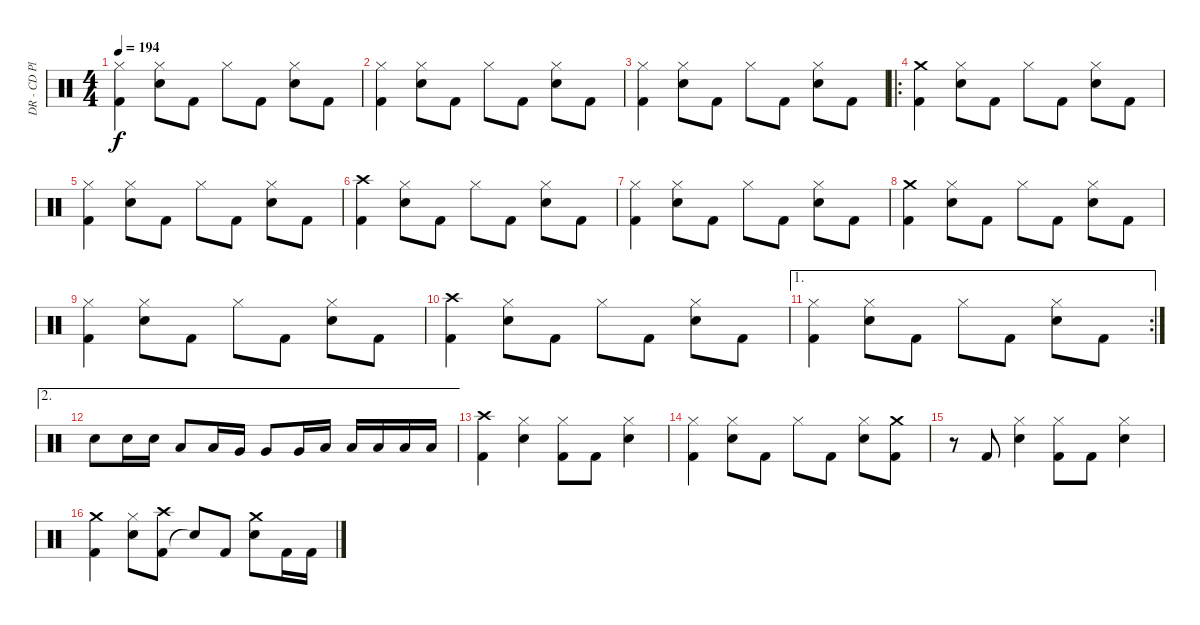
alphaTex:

\track ("DR - CD Player" "DR - CD Pl") {instrument percussion}
\staff {score}
\articulation defaults
\ts (4 4)
\tempo 194
\clef neutral
\ks c
("Kick (hit) 2" "Hi-Hat (closed)").4{dy f} ("Snare (hit) 2" "Hi-Hat (closed)").8 "Kick (hit) 2".8 "Hi-Hat (closed)".8 "Kick (hit) 2".8 ("Snare (hit) 2" "Hi-Hat (closed)").8 "Kick (hit) 2".8 |
("Kick (hit) 2" "Hi-Hat (closed)").4 ("Snare (hit) 2" "Hi-Hat (closed)").8 "Kick (hit) 2".8 "Hi-Hat (closed)".8 "Kick (hit) 2".8 ("Snare (hit) 2" "Hi-Hat (closed)").8 "Kick (hit) 2".8 |
("Kick (hit) 2" "Hi-Hat (closed)").4 ("Snare (hit) 2" "Hi-Hat (closed)").8 "Kick (hit) 2".8 "Hi-Hat (closed)".8 "Kick (hit) 2".8 ("Snare (hit) 2" "Hi-Hat (closed)").8 "Kick (hit) 2".8 |
\ro
("Kick (hit) 2" "Crash medium (hit)").4 ("Snare (hit) 2" "Hi-Hat (closed)").8 "Kick (hit) 2".8 "Hi-Hat (closed)".8 "Kick (hit) 2".8 ("Snare (hit) 2" "Hi-Hat (closed)").8 "Kick (hit) 2".8 |
("Kick (hit) 2" "Hi-Hat (closed)").4 ("Snare (hit) 2" "Hi-Hat (closed)").8 "Kick (hit) 2".8 "Hi-Hat (closed)".8 "Kick (hit) 2".8 ("Snare (hit) 2" "Hi-Hat (closed)").8 "Kick (hit) 2".8 |
("Kick (hit) 2" "Crash high (hit)").4 ("Snare (hit) 2" "Hi-Hat (closed)").8 "Kick (hit) 2".8 "Hi-Hat (closed)".8 "Kick (hit) 2".8 ("Snare (hit) 2" "Hi-Hat (closed)").8 "Kick (hit) 2".8 |
("Kick (hit) 2" "Hi-Hat (closed)").4 ("Snare (hit) 2" "Hi-Hat (closed)").8 "Kick (hit) 2".8 "Hi-Hat (closed)".8 "Kick (hit) 2".8 ("Snare (hit) 2" "Hi-Hat (closed)").8 "Kick (hit) 2".8 |
("Kick (hit) 2" "Crash medium (hit)").4 ("Snare (hit) 2" "Hi-Hat (closed)").8 "Kick (hit) 2".8 "Hi-Hat (closed)".8 "Kick (hit) 2".8 ("Snare (hit) 2" "Hi-Hat (closed)").8 "Kick (hit) 2".8 |
("Kick (hit) 2" "Hi-Hat (closed)").4 ("Snare (hit) 2" "Hi-Hat (closed)").8 "Kick (hit) 2".8 "Hi-Hat (closed)".8 "Kick (hit) 2".8 ("Snare (hit) 2" "Hi-Hat (closed)").8 "Kick (hit) 2".8 |
("Kick (hit) 2" "Crash high (hit)").4 ("Snare (hit) 2" "Hi-Hat (closed)").8 "Kick (hit) 2".8 "Hi-Hat (closed)".8 "Kick (hit) 2".8 ("Snare (hit) 2" "Hi-Hat (closed)").8 "Kick (hit) 2".8 |
\ae 1
\rc 2
("Kick (hit) 2" "Hi-Hat (closed)").4 ("Snare (hit) 2" "Hi-Hat (closed)").8 "Kick (hit) 2".8 "Hi-Hat (closed)".8 "Kick (hit) 2".8 ("Snare (hit) 2" "Hi-Hat (closed)").8 "Kick (hit) 2".8 |
\ae 2 "Snare (hit) 2".8 "Snare (hit) 2".16 "Snare (hit) 2".16 "Low Tom (hit)".8 "Low Tom (hit)".16 "Very Low Tom (hit)".16 "Very Low Tom (hit)".8 "Very Low Tom (hit)".16 "Low Floor Tom (hit)".16 "Low Floor Tom (hit)".16 "Low Floor Tom (hit)".16 "Low Floor Tom (hit)".16 "Low Floor Tom (hit)".16
|
("Kick (hit) 2" "Crash high (hit)").4 ("Snare (hit) 2" "Hi-Hat (closed)").4 ("Kick (hit) 2" "Hi-Hat (closed)").8 "Kick (hit) 2".8 ("Snare (hit) 2" "Hi-Hat (closed)").4 |
("Kick (hit) 2" "Hi-Hat (closed)").4 ("Snare (hit) 2" "Hi-Hat (closed)").8 "Kick (hit) 2".8 "Hi-Hat (closed)".8 "Kick (hit) 2".8 ("Snare (hit) 2" "Hi-Hat (closed)").8 ("Kick (hit) 2" "Crash medium (hit)").8 |
r.8 "Kick (hit) 2".8 ("Snare (hit) 2" "Hi-Hat (closed)").4 ("Kick (hit) 2" "Hi-Hat (closed)").8 "Kick (hit) 2".8 ("Snare (hit) 2" "Hi-Hat (closed)").4 |
("Kick (hit) 2" "Crash medium (hit)").4 ("Snare (hit) 2" "Hi-Hat (closed)").8 ("Kick (hit) 2" "Crash high (hit)").8 "Snare (hit)"{t}.8 "Kick (hit) 2".8 ("Snare (hit) 2" "Crash medium (hit)").8 "Kick (hit) 2".16 "Kick (hit) 2".16
